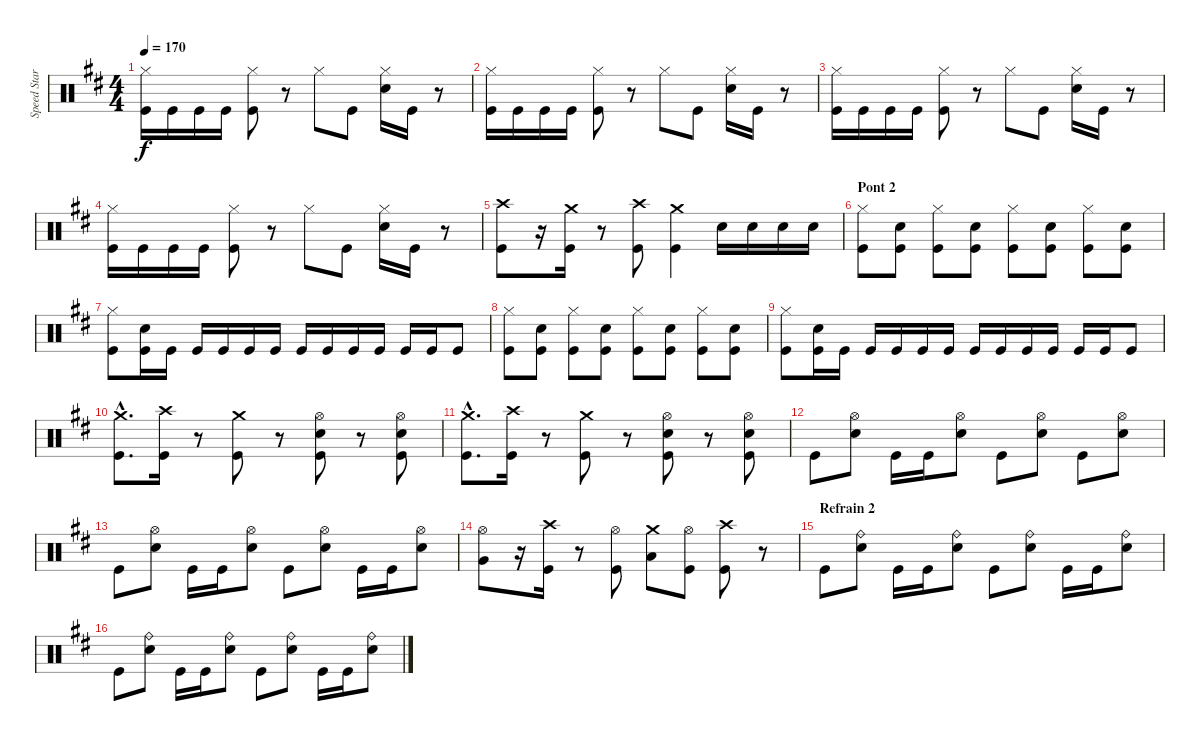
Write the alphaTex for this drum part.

\track ("Speed Star" "Speed Star") {instrument percussion}
\staff {score}
\articulation defaults
\ts (4 4)
\tempo 170
\clef neutral
\ks d
("Kick (hit)" "Hi-Hat (closed)").16{dy f} "Kick (hit)".16 "Kick (hit)".16 "Kick (hit)".16 ("Kick (hit)" "Hi-Hat (closed)").8 r.8 "Hi-Hat (closed)".8 "Kick (hit)".8 ("Snare (hit) 2" "Hi-Hat (closed)").16 "Kick (hit)".16 r.8 |
("Kick (hit)" "Hi-Hat (closed)").16 "Kick (hit)".16 "Kick (hit)".16 "Kick (hit)".16 ("Kick (hit)" "Hi-Hat (closed)").8 r.8 "Hi-Hat (closed)".8 "Kick (hit)".8 ("Snare (hit) 2" "Hi-Hat (closed)").16 "Kick (hit)".16 r.8 |
("Kick (hit)" "Hi-Hat (closed)").16 "Kick (hit)".16 "Kick (hit)".16 "Kick (hit)".16 ("Kick (hit)" "Hi-Hat (closed)").8 r.8 "Hi-Hat (closed)".8 "Kick (hit)".8 ("Snare (hit) 2" "Hi-Hat (closed)").16 "Kick (hit)".16 r.8 |
("Kick (hit)" "Hi-Hat (closed)").16 "Kick (hit)".16 "Kick (hit)".16 "Kick (hit)".16 ("Kick (hit)" "Hi-Hat (closed)").8 r.8 "Hi-Hat (closed)".8 "Kick (hit)".8 ("Snare (hit) 2" "Hi-Hat (closed)").16 "Kick (hit)".16 r.8 |
("Kick (hit)" "Crash high (hit)").8 r.16 ("Kick (hit)" "Crash medium (hit)").16 r.8 ("Kick (hit)" "Crash high (hit)").8 ("Kick (hit)" "Crash medium (hit)").4 "Snare (hit) 2".16 "Snare (hit) 2".16 "Snare (hit) 2".16 "Snare (hit) 2".16 |
\section ("" "Pont 2")
("Kick (hit)" "Hi-Hat (closed)").8 ("Kick (hit)" "Snare (hit) 2").8 ("Kick (hit)" "Hi-Hat (closed)").8 ("Kick (hit)" "Snare (hit) 2").8 ("Kick (hit)" "Hi-Hat (closed)").8 ("Kick (hit)" "Snare (hit) 2").8 ("Kick (hit)" "Hi-Hat (closed)").8 ("Kick (hit)" "Snare (hit) 2").8 |
("Kick (hit)" "Hi-Hat (closed)").8 ("Kick (hit)" "Snare (hit) 2").16 "Kick (hit)".16 "Kick (hit)".16 "Kick (hit)".16 "Kick (hit)".16 "Kick (hit)".16 "Kick (hit)".16 "Kick (hit)".16 "Kick (hit)".16 "Kick (hit)".16 "Kick (hit)".16 "Kick (hit)".16 "Kick (hit)".8 |
("Kick (hit)" "Hi-Hat (closed)").8 ("Kick (hit)" "Snare (hit) 2").8 ("Kick (hit)" "Hi-Hat (closed)").8 ("Kick (hit)" "Snare (hit) 2").8 ("Kick (hit)" "Hi-Hat (closed)").8 ("Kick (hit)" "Snare (hit) 2").8 ("Kick (hit)" "Hi-Hat (closed)").8 ("Kick (hit)" "Snare (hit) 2").8 |
("Kick (hit)" "Hi-Hat (closed)").8 ("Kick (hit)" "Snare (hit) 2").16 "Kick (hit)".16 "Kick (hit)".16 "Kick (hit)".16 "Kick (hit)".16 "Kick (hit)".16 "Kick (hit)".16 "Kick (hit)".16 "Kick (hit)".16 "Kick (hit)".16 "Kick (hit)".16 "Kick (hit)".16 "Kick (hit)".8 |
("Kick (hit)"{hac} "Crash medium (hit)"{hac}).8{d} ("Kick (hit)" "Crash high (hit)").16 r.8 ("Kick (hit)" "Crash medium (hit)").8 r.8 ("Snare (hit) 2" "Kick (hit)" "Hi-Hat (open)").8 r.8 ("Snare (hit) 2" "Kick (hit)" "Hi-Hat (open)").8 |
("Kick (hit)"{hac} "Crash medium (hit)"{hac}).8{d} ("Kick (hit)" "Crash high (hit)").16 r.8 ("Kick (hit)" "Crash medium (hit)").8 r.8 ("Snare (hit) 2" "Kick (hit)" "Hi-Hat (open)").8 r.8 ("Snare (hit) 2" "Kick (hit)" "Hi-Hat (open)").8 |
"Kick (hit)".8 ("Snare (hit) 2" "Hi-Hat (open)").8 "Kick (hit)".16 "Kick (hit)".16 ("Snare (hit) 2" "Hi-Hat (open)").8 "Kick (hit)".8 ("Snare (hit) 2" "Hi-Hat (open)").8 "Kick (hit)".8 ("Snare (hit) 2" "Hi-Hat (open)").8 |
"Kick (hit)".8 ("Snare (hit) 2" "Hi-Hat (open)").8 "Kick (hit)".16 "Kick (hit)".16 ("Snare (hit) 2" "Hi-Hat (open)").8 "Kick (hit)".8 ("Snare (hit) 2" "Hi-Hat (open)").8 "Kick (hit)".16 "Kick (hit)".16 ("Snare (hit) 2" "Hi-Hat (open)").8 |
("Very Low Tom (hit)" "Hi-Hat (open)").8 r.16 ("Kick (hit)" "Crash high (hit)").16 r.8 ("Kick (hit)" "Hi-Hat (open)").8 ("Low Floor Tom (hit)" "Crash medium (hit)").8 ("Kick (hit)" "Hi-Hat (open)").8 ("Kick (hit)" "Crash high (hit)").8 r.8 |
\section ("" "Refrain 2")
"Kick (hit)".8 ("Snare (hit) 2" "Ride (bell)").8 "Kick (hit)".16 "Kick (hit)".16 ("Snare (hit) 2" "Ride (bell)").8 "Kick (hit)".8 ("Snare (hit) 2" "Ride (bell)").8 "Kick (hit)".16 "Kick (hit)".16 ("Snare (hit) 2" "Ride (bell)").8 |
"Kick (hit)".8 ("Snare (hit) 2" "Ride (bell)").8 "Kick (hit)".16 "Kick (hit)".16 ("Snare (hit) 2" "Ride (bell)").8 "Kick (hit)".8 ("Snare (hit) 2" "Ride (bell)").8 "Kick (hit)".16 "Kick (hit)".16 ("Snare (hit) 2" "Ride (bell)").8
